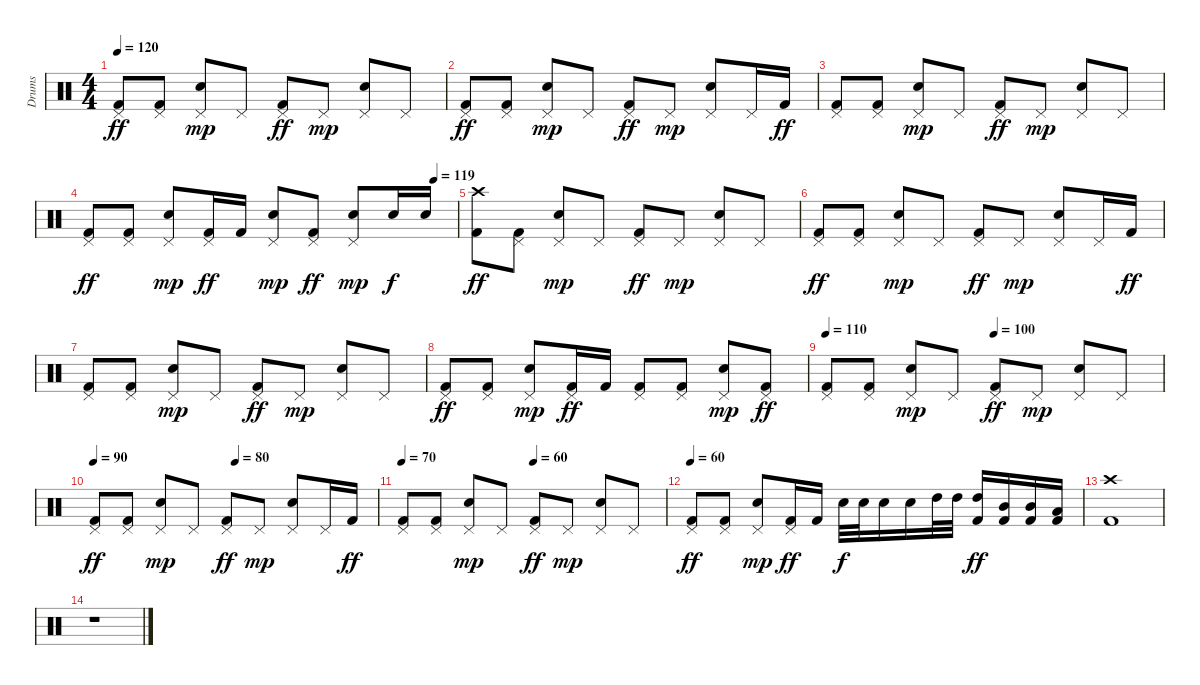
\track ("Drums" "Drums") {instrument percussion}
\staff {score}
\articulation defaults
\ts (4 4)
\tempo 120
\clef neutral
\ks c
("Pedal Hi-Hat (hit)" "Kick (hit) 2").8{dy ff} ("Pedal Hi-Hat (hit)" "Kick (hit) 2").8 ("Pedal Hi-Hat (hit)" "Electric Snare (hit)").8{dy mp} "Pedal Hi-Hat (hit)".8 ("Pedal Hi-Hat (hit)" "Kick (hit) 2").8{dy ff} "Pedal Hi-Hat (hit)".8{dy mp} ("Pedal Hi-Hat (hit)" "Electric Snare (hit)").8 "Pedal Hi-Hat (hit)".8 |
("Pedal Hi-Hat (hit)" "Kick (hit) 2").8{dy ff} ("Pedal Hi-Hat (hit)" "Kick (hit) 2").8 ("Pedal Hi-Hat (hit)" "Electric Snare (hit)").8{dy mp} "Pedal Hi-Hat (hit)".8 ("Pedal Hi-Hat (hit)" "Kick (hit) 2").8{dy ff} "Pedal Hi-Hat (hit)".8{dy mp} ("Pedal Hi-Hat (hit)" "Electric Snare (hit)").8 "Pedal Hi-Hat (hit)".16 "Kick (hit) 2".16{dy ff} |
("Pedal Hi-Hat (hit)" "Kick (hit) 2").8 ("Pedal Hi-Hat (hit)" "Kick (hit) 2").8 ("Pedal Hi-Hat (hit)" "Electric Snare (hit)").8{dy mp} "Pedal Hi-Hat (hit)".8 ("Pedal Hi-Hat (hit)" "Kick (hit) 2").8{dy ff} "Pedal Hi-Hat (hit)".8{dy mp} ("Pedal Hi-Hat (hit)" "Electric Snare (hit)").8 "Pedal Hi-Hat (hit)".8 |
\tempo (119 0.9375)
("Pedal Hi-Hat (hit)" "Kick (hit) 2").8{dy ff} ("Pedal Hi-Hat (hit)" "Kick (hit) 2").8 ("Pedal Hi-Hat (hit)" "Electric Snare (hit)").8{dy mp} ("Pedal Hi-Hat (hit)" "Kick (hit) 2").16{dy ff} "Kick (hit) 2".16 ("Pedal Hi-Hat (hit)" "Electric Snare (hit)").8{dy mp} ("Pedal Hi-Hat (hit)" "Kick (hit) 2").8{dy ff} ("Pedal Hi-Hat (hit)" "Electric Snare (hit)").8{dy mp} "Electric Snare (hit)".16{dy f} "Electric Snare (hit)".16 |
("Crash high (hit)" "Kick (hit) 2").8{dy ff volume 13} ("Pedal Hi-Hat (hit)" "Kick (hit) 2").8 ("Pedal Hi-Hat (hit)" "Electric Snare (hit)").8{dy mp} "Pedal Hi-Hat (hit)".8 ("Pedal Hi-Hat (hit)" "Kick (hit) 2").8{dy ff} "Pedal Hi-Hat (hit)".8{dy mp} ("Pedal Hi-Hat (hit)" "Electric Snare (hit)").8 "Pedal Hi-Hat (hit)".8 |
("Pedal Hi-Hat (hit)" "Kick (hit) 2").8{dy ff} ("Pedal Hi-Hat (hit)" "Kick (hit) 2").8 ("Pedal Hi-Hat (hit)" "Electric Snare (hit)").8{dy mp} "Pedal Hi-Hat (hit)".8 ("Pedal Hi-Hat (hit)" "Kick (hit) 2").8{dy ff} "Pedal Hi-Hat (hit)".8{dy mp} ("Pedal Hi-Hat (hit)" "Electric Snare (hit)").8 "Pedal Hi-Hat (hit)".16 "Kick (hit) 2".16{dy ff} |
("Pedal Hi-Hat (hit)" "Kick (hit) 2").8 ("Pedal Hi-Hat (hit)" "Kick (hit) 2").8 ("Pedal Hi-Hat (hit)" "Electric Snare (hit)").8{dy mp} "Pedal Hi-Hat (hit)".8 ("Pedal Hi-Hat (hit)" "Kick (hit) 2").8{dy ff} "Pedal Hi-Hat (hit)".8{dy mp} ("Pedal Hi-Hat (hit)" "Electric Snare (hit)").8 "Pedal Hi-Hat (hit)".8 |
("Pedal Hi-Hat (hit)" "Kick (hit) 2").8{dy ff} ("Pedal Hi-Hat (hit)" "Kick (hit) 2").8 ("Pedal Hi-Hat (hit)" "Electric Snare (hit)").8{dy mp} ("Pedal Hi-Hat (hit)" "Kick (hit) 2").16{dy ff} "Kick (hit) 2".16 ("Pedal Hi-Hat (hit)" "Kick (hit) 2").8 ("Pedal Hi-Hat (hit)" "Kick (hit) 2").8 ("Pedal Hi-Hat (hit)" "Electric Snare (hit)").8{dy mp} ("Pedal Hi-Hat (hit)" "Kick (hit) 2").8{dy ff} |
\tempo 110
\tempo (100 0.5)
("Pedal Hi-Hat (hit)" "Kick (hit) 2").8 ("Pedal Hi-Hat (hit)" "Kick (hit) 2").8 ("Pedal Hi-Hat (hit)" "Electric Snare (hit)").8{dy mp} "Pedal Hi-Hat (hit)".8 ("Pedal Hi-Hat (hit)" "Kick (hit) 2").8{dy ff} "Pedal Hi-Hat (hit)".8{dy mp} ("Pedal Hi-Hat (hit)" "Electric Snare (hit)").8 "Pedal Hi-Hat (hit)".8 |
\tempo 90
\tempo (80 0.5)
("Pedal Hi-Hat (hit)" "Kick (hit) 2").8{dy ff} ("Pedal Hi-Hat (hit)" "Kick (hit) 2").8 ("Pedal Hi-Hat (hit)" "Electric Snare (hit)").8{dy mp} "Pedal Hi-Hat (hit)".8 ("Pedal Hi-Hat (hit)" "Kick (hit) 2").8{dy ff} "Pedal Hi-Hat (hit)".8{dy mp} ("Pedal Hi-Hat (hit)" "Electric Snare (hit)").8 "Pedal Hi-Hat (hit)".16 "Kick (hit) 2".16{dy ff} |
\tempo 70
\tempo (60 0.5)
("Pedal Hi-Hat (hit)" "Kick (hit) 2").8 ("Pedal Hi-Hat (hit)" "Kick (hit) 2").8 ("Pedal Hi-Hat (hit)" "Electric Snare (hit)").8{dy mp} "Pedal Hi-Hat (hit)".8 ("Pedal Hi-Hat (hit)" "Kick (hit) 2").8{dy ff} "Pedal Hi-Hat (hit)".8{dy mp} ("Pedal Hi-Hat (hit)" "Electric Snare (hit)").8 "Pedal Hi-Hat (hit)".8 |
\tempo 60
("Pedal Hi-Hat (hit)" "Kick (hit) 2").8{dy ff} ("Pedal Hi-Hat (hit)" "Kick (hit) 2").8 ("Pedal Hi-Hat (hit)" "Electric Snare (hit)").8{dy mp} ("Pedal Hi-Hat (hit)" "Kick (hit) 2").16{dy ff} "Kick (hit) 2".16 "Electric Snare (hit)".32{dy f} "Electric Snare (hit)".32 "Electric Snare (hit)".16 "Electric Snare (hit)".16 "High Tom (hit)".32 "High Tom (hit)".32 ("High Tom (hit)" "Kick (hit) 2").16{dy ff} ("Mid Tom (hit)" "Kick (hit) 2").16 ("Mid Tom (hit)" "Kick (hit) 2").16 ("Low Tom (hit)" "Kick (hit) 2").16 |
\section ("" "")
("Crash high (hit)" "Kick (hit) 2").1 |
r.1
